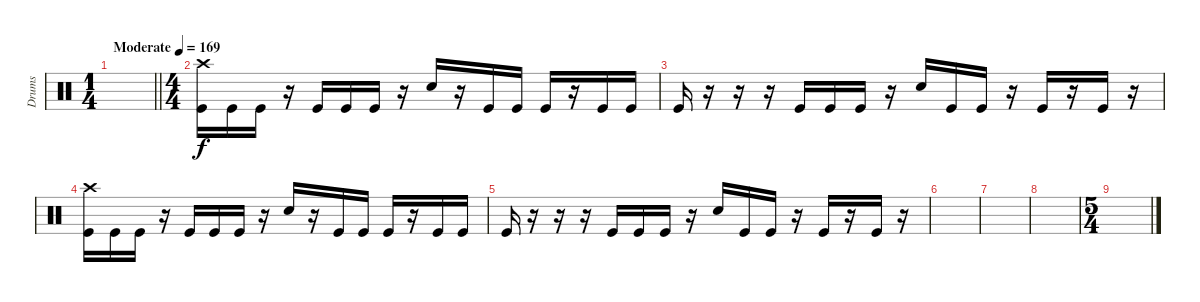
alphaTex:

\track ("Drums" "Drums") {mute instrument percussion}
\staff
\articulation defaults
\ts (1 4)
\tempo (169 "Moderate")
\clef neutral
\barLineRight lightlight
\ks c
|
\ts (4 4)
("Crash high (hit)" "Kick (hit)").16 "Kick (hit)".16 "Kick (hit)".16 r.16 "Kick (hit)".16 "Kick (hit)".16 "Kick (hit)".16 r.16 "Electric Snare (hit)".16 r.16 "Kick (hit)".16 "Kick (hit)".16 "Kick (hit)".16 r.16 "Kick (hit)".16 "Kick (hit)".16 |
"Kick (hit)".16 r.16 r.16 r.16 "Kick (hit)".16 "Kick (hit)".16 "Kick (hit)".16 r.16 "Electric Snare (hit)".16 "Kick (hit)".16 "Kick (hit)".16 r.16 "Kick (hit)".16 r.16 "Kick (hit)".16 r.16 |
("Crash high (hit)" "Kick (hit)").16 "Kick (hit)".16 "Kick (hit)".16 r.16 "Kick (hit)".16 "Kick (hit)".16 "Kick (hit)".16 r.16 "Electric Snare (hit)".16 r.16 "Kick (hit)".16 "Kick (hit)".16 "Kick (hit)".16 r.16 "Kick (hit)".16 "Kick (hit)".16 |
"Kick (hit)".16 r.16 r.16 r.16 "Kick (hit)".16 "Kick (hit)".16 "Kick (hit)".16 r.16 "Electric Snare (hit)".16 "Kick (hit)".16 "Kick (hit)".16 r.16 "Kick (hit)".16 r.16 "Kick (hit)".16 r.16 |
|
|
|
\ts (5 4)
